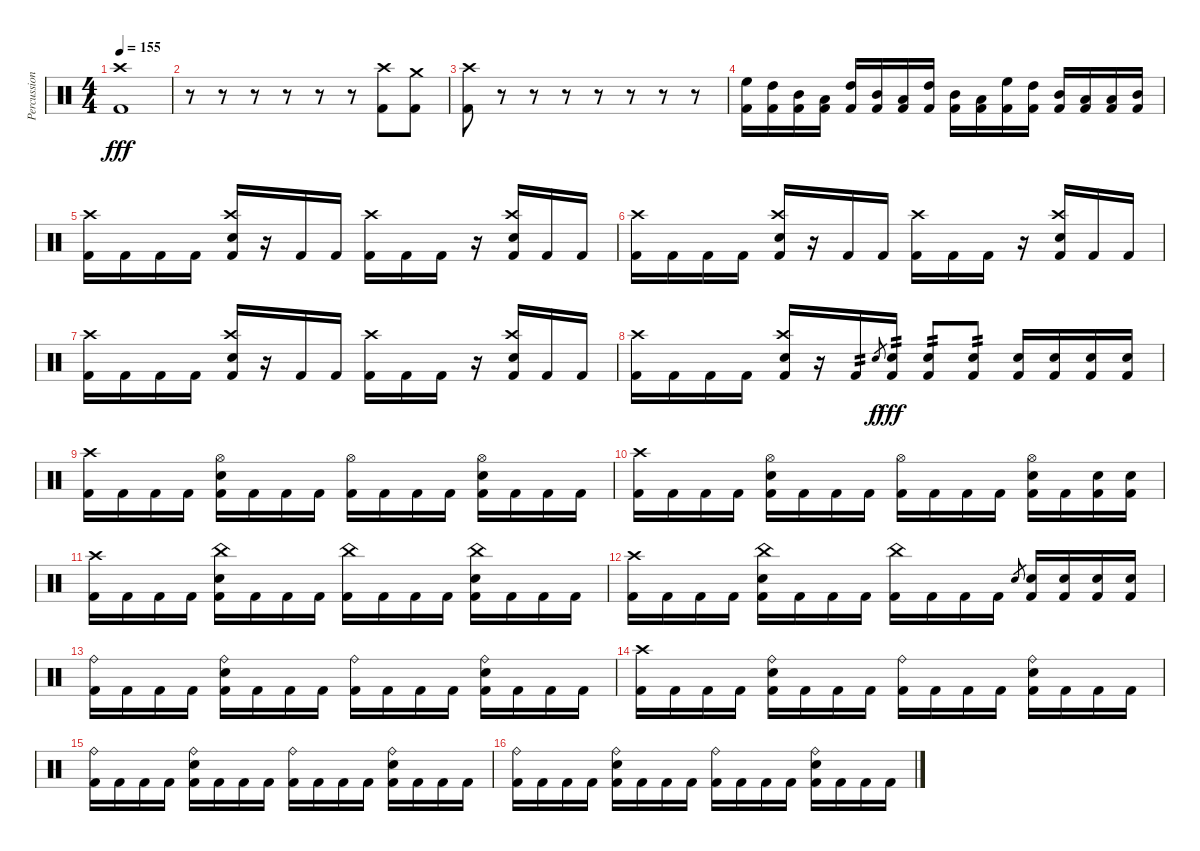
\track ("Percussion" "Percussion") {instrument percussion}
\staff {score}
\articulation defaults
\ts (4 4)
\tempo 155
\clef neutral
\ks c
("Kick (hit) 2" "Crash high (hit)").1{dy fff} |
r.8 r.8 r.8 r.8 r.8 r.8 ("Kick (hit) 2" "Crash high (hit)").8 ("Kick (hit) 2" "Crash medium (hit)").8 |
("Kick (hit) 2" "Crash high (hit)").8 r.8 r.8 r.8 r.8 r.8 r.8 r.8 |
("Kick (hit) 2" "High Floor Tom (hit)").16 ("Kick (hit) 2" "High Tom (hit)").16 ("Kick (hit) 2" "Mid Tom (hit)").16 ("Kick (hit) 2" "Low Tom (hit)").16 ("Kick (hit) 2" "High Tom (hit)").16 ("Kick (hit) 2" "Mid Tom (hit)").16 ("Kick (hit) 2" "Low Tom (hit)").16 ("Kick (hit) 2" "High Tom (hit)").16 ("Kick (hit) 2" "Mid Tom (hit)").16 ("Kick (hit) 2" "Low Tom (hit)").16 ("Kick (hit) 2" "High Floor Tom (hit)").16 ("Kick (hit) 2" "High Tom (hit)").16 ("Kick (hit) 2" "Mid Tom (hit)").16 ("Kick (hit) 2" "Low Tom (hit)").16 ("Kick (hit) 2" "Low Tom (hit)").16 ("Kick (hit) 2" "Mid Tom (hit)").16 |
("Kick (hit) 2" "Crash high (hit)").16 "Kick (hit) 2".16 "Kick (hit) 2".16 "Kick (hit) 2".16 ("Kick (hit) 2" "Electric Snare (hit)" "Crash high (hit)").16 r.16 "Kick (hit) 2".16 "Kick (hit) 2".16 ("Kick (hit) 2" "Crash high (hit)").16 "Kick (hit) 2".16 "Kick (hit) 2".16 r.16 ("Kick (hit) 2" "Electric Snare (hit)" "Crash high (hit)").16 "Kick (hit) 2".16 "Kick (hit) 2".16 |
("Kick (hit) 2" "Crash high (hit)").16 "Kick (hit) 2".16 "Kick (hit) 2".16 "Kick (hit) 2".16 ("Kick (hit) 2" "Electric Snare (hit)" "Crash high (hit)").16 r.16 "Kick (hit) 2".16 "Kick (hit) 2".16 ("Kick (hit) 2" "Crash high (hit)").16 "Kick (hit) 2".16 "Kick (hit) 2".16 r.16 ("Kick (hit) 2" "Electric Snare (hit)" "Crash high (hit)").16 "Kick (hit) 2".16 "Kick (hit) 2".16 |
("Kick (hit) 2" "Crash high (hit)").16 "Kick (hit) 2".16 "Kick (hit) 2".16 "Kick (hit) 2".16 ("Kick (hit) 2" "Electric Snare (hit)" "Crash high (hit)").16 r.16 "Kick (hit) 2".16 "Kick (hit) 2".16 ("Kick (hit) 2" "Crash high (hit)").16 "Kick (hit) 2".16 "Kick (hit) 2".16 r.16 ("Kick (hit) 2" "Electric Snare (hit)" "Crash high (hit)").16 "Kick (hit) 2".16 "Kick (hit) 2".16 |
("Kick (hit) 2" "Crash high (hit)").16 "Kick (hit) 2".16 "Kick (hit) 2".16 "Kick (hit) 2".16 ("Kick (hit) 2" "Electric Snare (hit)" "Crash high (hit)").16 r.16 "Kick (hit) 2".16{tp 2} "Electric Snare (hit)".8{gr dy f} ("Kick (hit) 2" "Electric Snare (hit)").16{tp 2 dy fff} ("Kick (hit) 2" "Electric Snare (hit)").8{tp 2} ("Kick (hit) 2" "Electric Snare (hit)").8{tp 2} ("Kick (hit) 2" "Electric Snare (hit)").16 ("Kick (hit) 2" "Electric Snare (hit)").16 ("Kick (hit) 2" "Electric Snare (hit)").16 ("Kick (hit) 2" "Electric Snare (hit)").16 |
("Kick (hit) 2" "Crash high (hit)").16 "Kick (hit) 2".16 "Kick (hit) 2".16 "Kick (hit) 2".16 ("Kick (hit) 2" "Electric Snare (hit)" "Hi-Hat (open)").16 "Kick (hit) 2".16 "Kick (hit) 2".16 "Kick (hit) 2".16 ("Kick (hit) 2" "Hi-Hat (open)").16 "Kick (hit) 2".16 "Kick (hit) 2".16 "Kick (hit) 2".16 ("Kick (hit) 2" "Electric Snare (hit)" "Hi-Hat (open)").16 "Kick (hit) 2".16 "Kick (hit) 2".16 "Kick (hit) 2".16 |
("Kick (hit) 2" "Crash high (hit)").16 "Kick (hit) 2".16 "Kick (hit) 2".16 "Kick (hit) 2".16 ("Kick (hit) 2" "Electric Snare (hit)" "Hi-Hat (open)").16 "Kick (hit) 2".16 "Kick (hit) 2".16 "Kick (hit) 2".16 ("Kick (hit) 2" "Hi-Hat (open)").16 "Kick (hit) 2".16 "Kick (hit) 2".16 "Kick (hit) 2".16 ("Kick (hit) 2" "Electric Snare (hit)" "Hi-Hat (open)").16 "Kick (hit) 2".16 ("Kick (hit) 2" "Electric Snare (hit)").16 ("Kick (hit) 2" "Electric Snare (hit)").16 |
("Kick (hit) 2" "Crash high (hit)").16 "Kick (hit) 2".16 "Kick (hit) 2".16 "Kick (hit) 2".16 ("Kick (hit) 2" "China (hit)" "Electric Snare (hit)").16 "Kick (hit) 2".16 "Kick (hit) 2".16 "Kick (hit) 2".16 ("Kick (hit) 2" "China (hit)").16 "Kick (hit) 2".16 "Kick (hit) 2".16 "Kick (hit) 2".16 ("Kick (hit) 2" "China (hit)" "Electric Snare (hit)").16 "Kick (hit) 2".16 "Kick (hit) 2".16 "Kick (hit) 2".16 |
("Kick (hit) 2" "Crash high (hit)").16 "Kick (hit) 2".16 "Kick (hit) 2".16 "Kick (hit) 2".16 ("Kick (hit) 2" "China (hit)" "Electric Snare (hit)").16 "Kick (hit) 2".16 "Kick (hit) 2".16 "Kick (hit) 2".16 ("Kick (hit) 2" "China (hit)").16 "Kick (hit) 2".16 "Kick (hit) 2".16 "Kick (hit) 2".16 "Electric Snare (hit)".8{gr} ("Kick (hit) 2" "Electric Snare (hit)").16 ("Kick (hit) 2" "Electric Snare (hit)").16 ("Kick (hit) 2" "Electric Snare (hit)").16 ("Kick (hit) 2" "Electric Snare (hit)").16 |
("Kick (hit) 2" "Ride (bell)").16 "Kick (hit) 2".16 "Kick (hit) 2".16 "Kick (hit) 2".16 ("Kick (hit) 2" "Electric Snare (hit)" "Ride (bell)").16 "Kick (hit) 2".16 "Kick (hit) 2".16 "Kick (hit) 2".16 ("Kick (hit) 2" "Ride (bell)").16 "Kick (hit) 2".16 "Kick (hit) 2".16 "Kick (hit) 2".16 ("Kick (hit) 2" "Electric Snare (hit)" "Ride (bell)").16 "Kick (hit) 2".16 "Kick (hit) 2".16 "Kick (hit) 2".16 |
("Kick (hit) 2" "Crash high (hit)").16 "Kick (hit) 2".16 "Kick (hit) 2".16 "Kick (hit) 2".16 ("Kick (hit) 2" "Electric Snare (hit)" "Ride (bell)").16 "Kick (hit) 2".16 "Kick (hit) 2".16 "Kick (hit) 2".16 ("Kick (hit) 2" "Ride (bell)").16 "Kick (hit) 2".16 "Kick (hit) 2".16 "Kick (hit) 2".16 ("Kick (hit) 2" "Electric Snare (hit)" "Ride (bell)").16 "Kick (hit) 2".16 "Kick (hit) 2".16 "Kick (hit) 2".16 |
("Kick (hit) 2" "Ride (bell)").16 "Kick (hit) 2".16 "Kick (hit) 2".16 "Kick (hit) 2".16 ("Kick (hit) 2" "Electric Snare (hit)" "Ride (bell)").16 "Kick (hit) 2".16 "Kick (hit) 2".16 "Kick (hit) 2".16 ("Kick (hit) 2" "Ride (bell)").16 "Kick (hit) 2".16 "Kick (hit) 2".16 "Kick (hit) 2".16 ("Kick (hit) 2" "Electric Snare (hit)" "Ride (bell)").16 "Kick (hit) 2".16 "Kick (hit) 2".16 "Kick (hit) 2".16 |
("Kick (hit) 2" "Ride (bell)").16 "Kick (hit) 2".16 "Kick (hit) 2".16 "Kick (hit) 2".16 ("Kick (hit) 2" "Electric Snare (hit)" "Ride (bell)").16 "Kick (hit) 2".16 "Kick (hit) 2".16 "Kick (hit) 2".16 ("Kick (hit) 2" "Ride (bell)").16 "Kick (hit) 2".16 "Kick (hit) 2".16 "Kick (hit) 2".16 ("Kick (hit) 2" "Electric Snare (hit)" "Ride (bell)").16 "Kick (hit) 2".16 "Kick (hit) 2".16 "Kick (hit) 2".16
